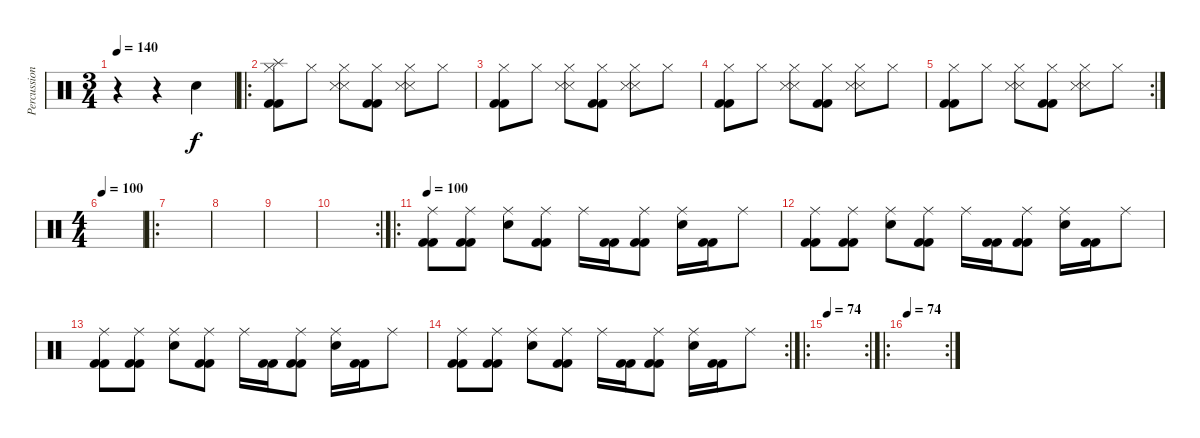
\track ("Percussion" "Percussion") {instrument percussion}
\staff {score}
\articulation defaults
\ts (3 4)
\tempo 140
\clef neutral
\ks c
r.4{dy f} r.4 "Snare (hit) 2".4 |
\ro
("Hi-Hat (closed)" "Splash (hit)" "Kick (hit) 2" "Kick (hit) 2").8 "Hi-Hat (closed)".8 ("Hi-Hat (closed)" "Snare (side stick) 3" "Snare (side stick) 3").8 ("Hi-Hat (closed)" "Kick (hit) 2" "Kick (hit) 2").8 ("Hi-Hat (closed)" "Snare (side stick) 3" "Snare (side stick) 3").8 "Hi-Hat (closed)".8 |
("Hi-Hat (closed)" "Kick (hit) 2" "Kick (hit) 2").8 "Hi-Hat (closed)".8 ("Hi-Hat (closed)" "Snare (side stick) 3" "Snare (side stick) 3").8 ("Hi-Hat (closed)" "Kick (hit) 2" "Kick (hit) 2").8 ("Hi-Hat (closed)" "Snare (side stick) 3" "Snare (side stick) 3").8 "Hi-Hat (closed)".8 |
("Hi-Hat (closed)" "Kick (hit) 2" "Kick (hit) 2").8 "Hi-Hat (closed)".8 ("Hi-Hat (closed)" "Snare (side stick) 3" "Snare (side stick) 3").8 ("Hi-Hat (closed)" "Kick (hit) 2" "Kick (hit) 2").8 ("Hi-Hat (closed)" "Snare (side stick) 3" "Snare (side stick) 3").8 "Hi-Hat (closed)".8 |
\rc 2
("Hi-Hat (closed)" "Kick (hit) 2" "Kick (hit) 2").8 "Hi-Hat (closed)".8 ("Hi-Hat (closed)" "Snare (side stick) 3" "Snare (side stick) 3").8 ("Hi-Hat (closed)" "Kick (hit) 2" "Kick (hit) 2").8 ("Hi-Hat (closed)" "Snare (side stick) 3" "Snare (side stick) 3").8 "Hi-Hat (closed)".8 |
\ts (4 4)
\tempo 100
|
\ro
|
|
|
\rc 2
|
\ro
\tempo 100
("Ride (middle)" "Kick (hit) 2" "Kick (hit) 2").8 ("Ride (middle)" "Kick (hit) 2" "Kick (hit) 2").8 ("Ride (middle)" "Snare (hit) 2").8 ("Ride (middle)" "Kick (hit) 2" "Kick (hit) 2").8 "Ride (middle)".16 ("Kick (hit) 2" "Kick (hit) 2").16 ("Ride (middle)" "Kick (hit) 2" "Kick (hit) 2").8 ("Ride (middle)" "Snare (hit) 2").16 ("Kick (hit) 2" "Kick (hit) 2").16 "Ride (middle)".8 |
("Ride (middle)" "Kick (hit) 2" "Kick (hit) 2").8 ("Ride (middle)" "Kick (hit) 2" "Kick (hit) 2").8 ("Ride (middle)" "Snare (hit) 2").8 ("Ride (middle)" "Kick (hit) 2" "Kick (hit) 2").8 "Ride (middle)".16 ("Kick (hit) 2" "Kick (hit) 2").16 ("Ride (middle)" "Kick (hit) 2" "Kick (hit) 2").8 ("Ride (middle)" "Snare (hit) 2").16 ("Kick (hit) 2" "Kick (hit) 2").16 "Ride (middle)".8 |
("Ride (middle)" "Kick (hit) 2" "Kick (hit) 2").8 ("Ride (middle)" "Kick (hit) 2" "Kick (hit) 2").8 ("Ride (middle)" "Snare (hit) 2").8 ("Ride (middle)" "Kick (hit) 2" "Kick (hit) 2").8 "Ride (middle)".16 ("Kick (hit) 2" "Kick (hit) 2").16 ("Ride (middle)" "Kick (hit) 2" "Kick (hit) 2").8 ("Ride (middle)" "Snare (hit) 2").16 ("Kick (hit) 2" "Kick (hit) 2").16 "Ride (middle)".8 |
\rc 2
("Ride (middle)" "Kick (hit) 2" "Kick (hit) 2").8 ("Ride (middle)" "Kick (hit) 2" "Kick (hit) 2").8 ("Ride (middle)" "Snare (hit) 2").8 ("Ride (middle)" "Kick (hit) 2" "Kick (hit) 2").8 "Ride (middle)".16 ("Kick (hit) 2" "Kick (hit) 2").16 ("Ride (middle)" "Kick (hit) 2" "Kick (hit) 2").8 ("Ride (middle)" "Snare (hit) 2").16 ("Kick (hit) 2" "Kick (hit) 2").16 "Ride (middle)".8 |
\ro
\rc 2
\tempo 74
|
\ro
\rc 2
\tempo 74
